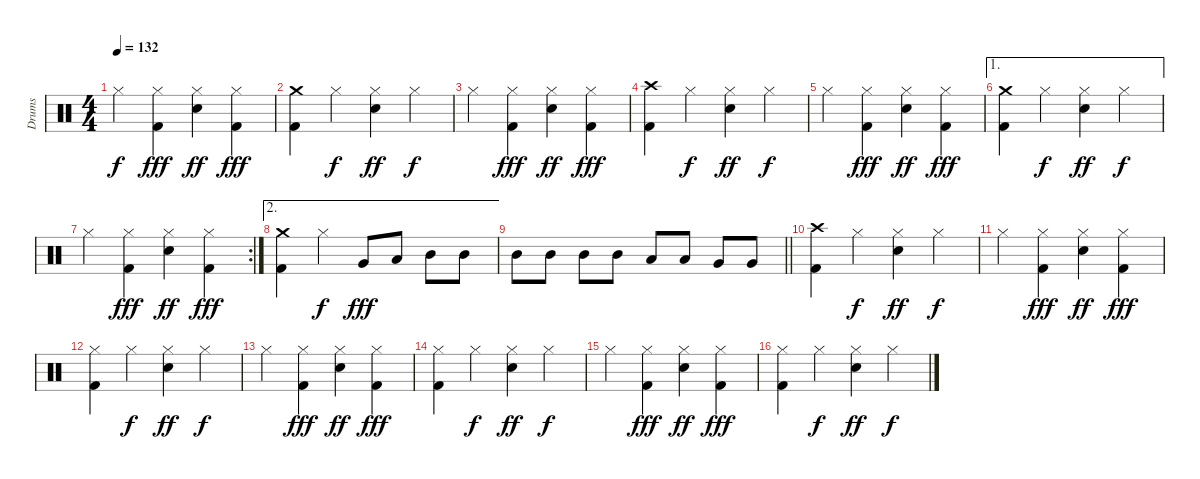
\track ("Drums" "Drums") {instrument percussion}
\staff {score}
\articulation defaults
\ts (4 4)
\tempo 132
\clef neutral
\ks c "Hi-Hat (closed)".4{dy f}
("Hi-Hat (closed)" "Kick (hit) 2").4{dy fff} ("Hi-Hat (closed)" "Electric Snare (hit)").4{dy ff} ("Hi-Hat (closed)" "Kick (hit) 2").4{dy fff} |
("Crash medium (hit)" "Kick (hit) 2").4 "Hi-Hat (closed)".4{dy f} ("Hi-Hat (closed)" "Electric Snare (hit)").4{dy ff} "Hi-Hat (closed)".4{dy f} |
"Hi-Hat (closed)".4 ("Hi-Hat (closed)" "Kick (hit) 2").4{dy fff} ("Hi-Hat (closed)" "Electric Snare (hit)").4{dy ff} ("Hi-Hat (closed)" "Kick (hit) 2").4{dy fff} |
("Crash high (hit)" "Kick (hit) 2").4 "Hi-Hat (closed)".4{dy f} ("Hi-Hat (closed)" "Electric Snare (hit)").4{dy ff} "Hi-Hat (closed)".4{dy f} |
"Hi-Hat (closed)".4 ("Hi-Hat (closed)" "Kick (hit) 2").4{dy fff} ("Hi-Hat (closed)" "Electric Snare (hit)").4{dy ff} ("Hi-Hat (closed)" "Kick (hit) 2").4{dy fff} |
\ae 1
("Crash medium (hit)" "Kick (hit) 2").4 "Hi-Hat (closed)".4{dy f} ("Hi-Hat (closed)" "Electric Snare (hit)").4{dy ff} "Hi-Hat (closed)".4{dy f} |
\rc 2 "Hi-Hat (closed)".4
("Hi-Hat (closed)" "Kick (hit) 2").4{dy fff} ("Hi-Hat (closed)" "Electric Snare (hit)").4{dy ff} ("Hi-Hat (closed)" "Kick (hit) 2").4{dy fff} |
\ae 2
("Crash medium (hit)" "Kick (hit) 2").4 "Hi-Hat (closed)".4{dy f} "Very Low Tom (hit)".8{dy fff} "Low Tom (hit)".8 "Mid Tom (hit)".8 "Mid Tom (hit)".8 |
\barLineRight lightlight "Mid Tom (hit)".8 "Mid Tom (hit)".8 "Mid Tom (hit)".8 "Mid Tom (hit)".8 "Low Tom (hit)".8 "Low Tom (hit)".8 "Very Low Tom (hit)".8 "Very Low Tom (hit)".8
|
("Crash high (hit)" "Kick (hit) 2").4 "Hi-Hat (closed)".4{dy f} ("Hi-Hat (closed)" "Electric Snare (hit)").4{dy ff} "Hi-Hat (closed)".4{dy f} |
"Hi-Hat (closed)".4 ("Hi-Hat (closed)" "Kick (hit) 2").4{dy fff} ("Hi-Hat (closed)" "Electric Snare (hit)").4{dy ff} ("Hi-Hat (closed)" "Kick (hit) 2").4{dy fff} |
("Hi-Hat (closed)" "Kick (hit) 2").4 "Hi-Hat (closed)".4{dy f} ("Hi-Hat (closed)" "Electric Snare (hit)").4{dy ff} "Hi-Hat (closed)".4{dy f} |
"Hi-Hat (closed)".4 ("Hi-Hat (closed)" "Kick (hit) 2").4{dy fff} ("Hi-Hat (closed)" "Electric Snare (hit)").4{dy ff} ("Hi-Hat (closed)" "Kick (hit) 2").4{dy fff} |
("Hi-Hat (closed)" "Kick (hit) 2").4 "Hi-Hat (closed)".4{dy f} ("Hi-Hat (closed)" "Electric Snare (hit)").4{dy ff} "Hi-Hat (closed)".4{dy f} |
"Hi-Hat (closed)".4 ("Hi-Hat (closed)" "Kick (hit) 2").4{dy fff} ("Hi-Hat (closed)" "Electric Snare (hit)").4{dy ff} ("Hi-Hat (closed)" "Kick (hit) 2").4{dy fff} |
("Hi-Hat (closed)" "Kick (hit) 2").4 "Hi-Hat (closed)".4{dy f} ("Hi-Hat (closed)" "Electric Snare (hit)").4{dy ff} "Hi-Hat (closed)".4{dy f}
